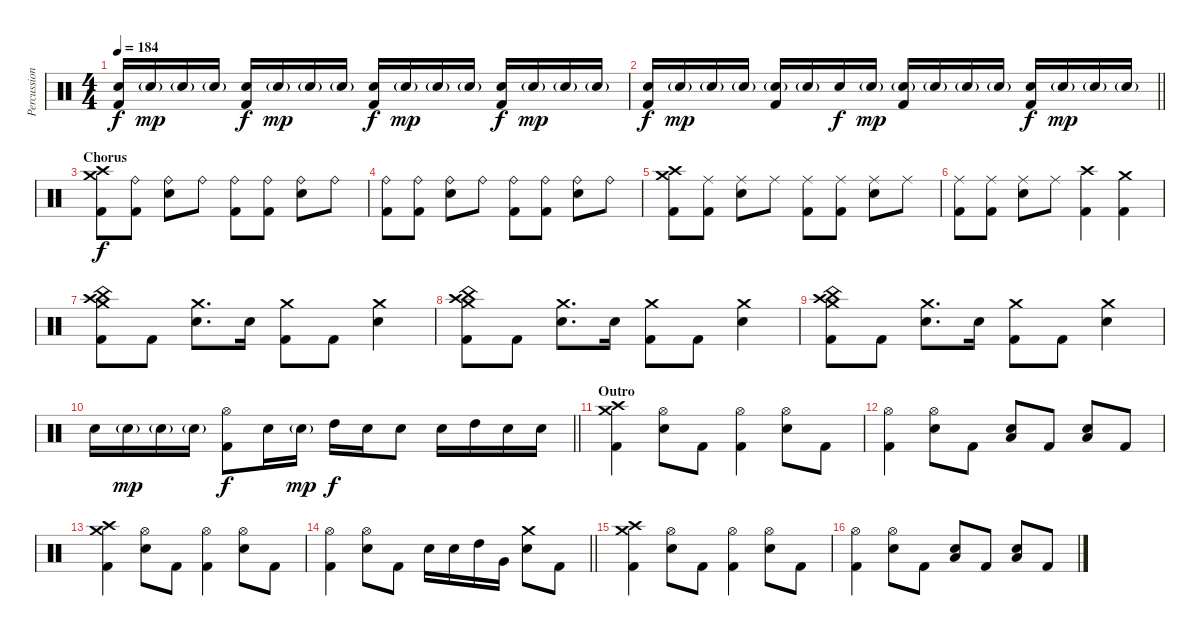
\track ("Percussion" "Percussion") {instrument percussion}
\staff {score}
\articulation defaults
\ts (4 4)
\tempo 184
\clef neutral
\ks c
("Electric Snare (hit)" "Kick (hit) 2").16{dy f} "Electric Snare (hit)"{g}.16{dy mp} "Electric Snare (hit)"{g}.16 "Electric Snare (hit)"{g}.16 ("Electric Snare (hit)" "Kick (hit) 2").16{dy f} "Electric Snare (hit)"{g}.16{dy mp} "Electric Snare (hit)"{g}.16 "Electric Snare (hit)"{g}.16 ("Electric Snare (hit)" "Kick (hit) 2").16{dy f} "Electric Snare (hit)"{g}.16{dy mp} "Electric Snare (hit)"{g}.16 "Electric Snare (hit)"{g}.16 ("Electric Snare (hit)" "Kick (hit) 2").16{dy f} "Electric Snare (hit)"{g}.16{dy mp} "Electric Snare (hit)"{g}.16 "Electric Snare (hit)"{g}.16 |
\barLineRight lightlight
("Electric Snare (hit)" "Kick (hit) 2").16{dy f} "Electric Snare (hit)"{g}.16{dy mp} "Electric Snare (hit)"{g}.16 "Electric Snare (hit)"{g}.16 ("Electric Snare (hit)"{g} "Kick (hit) 2").16 "Electric Snare (hit)"{g}.16 "Electric Snare (hit)".16{dy f} "Electric Snare (hit)"{g}.16{dy mp} ("Electric Snare (hit)"{g} "Kick (hit) 2").16 "Electric Snare (hit)"{g}.16 "Electric Snare (hit)"{g}.16 "Electric Snare (hit)"{g}.16 ("Electric Snare (hit)" "Kick (hit) 2").16{dy f} "Electric Snare (hit)"{g}.16{dy mp} "Electric Snare (hit)"{g}.16 "Electric Snare (hit)"{g}.16 |
\section ("" "Chorus")
("Crash medium (hit)" "Crash high (hit)" "Kick (hit) 2").8{dy f volume 13} ("Ride (bell)" "Kick (hit) 2").8 ("Ride (bell)" "Electric Snare (hit)").8 "Ride (bell)".8 ("Ride (bell)" "Kick (hit) 2").8 ("Ride (bell)" "Kick (hit) 2").8 ("Ride (bell)" "Electric Snare (hit)").8 "Ride (bell)".8 |
("Ride (bell)" "Kick (hit) 2").8 ("Ride (bell)" "Kick (hit) 2").8 ("Ride (bell)" "Electric Snare (hit)").8 "Ride (bell)".8 ("Ride (bell)" "Kick (hit) 2").8 ("Ride (bell)" "Kick (hit) 2").8 ("Ride (bell)" "Electric Snare (hit)").8 "Ride (bell)".8 |
("Crash medium (hit)" "Crash high (hit)" "Kick (hit) 2").8 ("Ride (middle)" "Kick (hit) 2").8 ("Ride (middle)" "Electric Snare (hit)").8 "Ride (middle)".8 ("Ride (middle)" "Kick (hit) 2").8 ("Ride (middle)" "Kick (hit) 2").8 ("Ride (middle)" "Electric Snare (hit)").8 "Ride (middle)".8 |
("Ride (middle)" "Kick (hit) 2").8 ("Ride (middle)" "Kick (hit) 2").8 ("Ride (middle)" "Electric Snare (hit)").8 "Ride (middle)".8 ("Crash high (hit)" "Kick (hit) 2").4 ("Crash medium (hit)" "Kick (hit) 2").4 |
("Crash high (hit)" "Crash medium (hit)" "China (hit)" "Kick (hit) 2").8 "Kick (hit) 2".8 ("Crash medium (hit)" "Electric Snare (hit)").8{d} "Electric Snare (hit)".16 ("Crash medium (hit)" "Kick (hit) 2").8 "Kick (hit) 2".8 ("Crash medium (hit)" "Electric Snare (hit)").4 |
("Crash high (hit)" "Crash medium (hit)" "China (hit)" "Kick (hit) 2").8 "Kick (hit) 2".8 ("Crash medium (hit)" "Electric Snare (hit)").8{d} "Electric Snare (hit)".16 ("Crash medium (hit)" "Kick (hit) 2").8 "Kick (hit) 2".8 ("Crash medium (hit)" "Electric Snare (hit)").4 |
("Crash high (hit)" "Crash medium (hit)" "China (hit)" "Kick (hit) 2").8 "Kick (hit) 2".8 ("Crash medium (hit)" "Electric Snare (hit)").8{d} "Electric Snare (hit)".16 ("Crash medium (hit)" "Kick (hit) 2").8 "Kick (hit) 2".8 ("Crash medium (hit)" "Electric Snare (hit)").4 |
\barLineRight lightlight "Electric Snare (hit)".16 "Electric Snare (hit)"{g}.16{dy mp} "Electric Snare (hit)"{g}.16 "Electric Snare (hit)"{g}.16
("Hi-Hat (open)" "Kick (hit) 2").8{dy f} "Electric Snare (hit)".16 "Electric Snare (hit)"{g}.16{dy mp} "High Tom (hit)".16{dy f} "Electric Snare (hit)".16 "Electric Snare (hit)".8 "Electric Snare (hit)".16 "High Tom (hit)".16 "Electric Snare (hit)".16 "Electric Snare (hit)".16 |
\section ("" "Outro")
("Crash high (hit)" "Crash medium (hit)" "Kick (hit) 2").4 ("Hi-Hat (open)" "Electric Snare (hit)").8 "Kick (hit) 2".8 ("Hi-Hat (open)" "Kick (hit) 2").4 ("Hi-Hat (open)" "Electric Snare (hit)").8 "Kick (hit) 2".8 |
("Hi-Hat (open)" "Kick (hit) 2").4 ("Hi-Hat (open)" "Electric Snare (hit)").8 "Kick (hit) 2".8 ("Electric Snare (hit)" "Low Floor Tom (hit)").8 "Kick (hit) 2".8 ("Electric Snare (hit)" "Low Floor Tom (hit)").8 "Kick (hit) 2".8 |
("Crash high (hit)" "Crash medium (hit)" "Kick (hit) 2").4 ("Hi-Hat (open)" "Electric Snare (hit)").8 "Kick (hit) 2".8 ("Hi-Hat (open)" "Kick (hit) 2").4 ("Hi-Hat (open)" "Electric Snare (hit)").8 "Kick (hit) 2".8 |
\barLineRight lightlight
("Hi-Hat (open)" "Kick (hit) 2").4 ("Hi-Hat (open)" "Electric Snare (hit)").8 "Kick (hit) 2".8 "Electric Snare (hit)".16 "Electric Snare (hit)".16 "High Tom (hit)".16 "Very Low Tom (hit)".16 ("Crash medium (hit)" "Electric Snare (hit)").8 "Kick (hit) 2".8 |
("Crash high (hit)" "Crash medium (hit)" "Kick (hit) 2").4 ("Hi-Hat (open)" "Electric Snare (hit)").8 "Kick (hit) 2".8 ("Hi-Hat (open)" "Kick (hit) 2").4 ("Hi-Hat (open)" "Electric Snare (hit)").8 "Kick (hit) 2".8 |
("Hi-Hat (open)" "Kick (hit) 2").4 ("Hi-Hat (open)" "Electric Snare (hit)").8 "Kick (hit) 2".8 ("Electric Snare (hit)" "Low Floor Tom (hit)").8 "Kick (hit) 2".8 ("Electric Snare (hit)" "Low Floor Tom (hit)").8 "Kick (hit) 2".8
